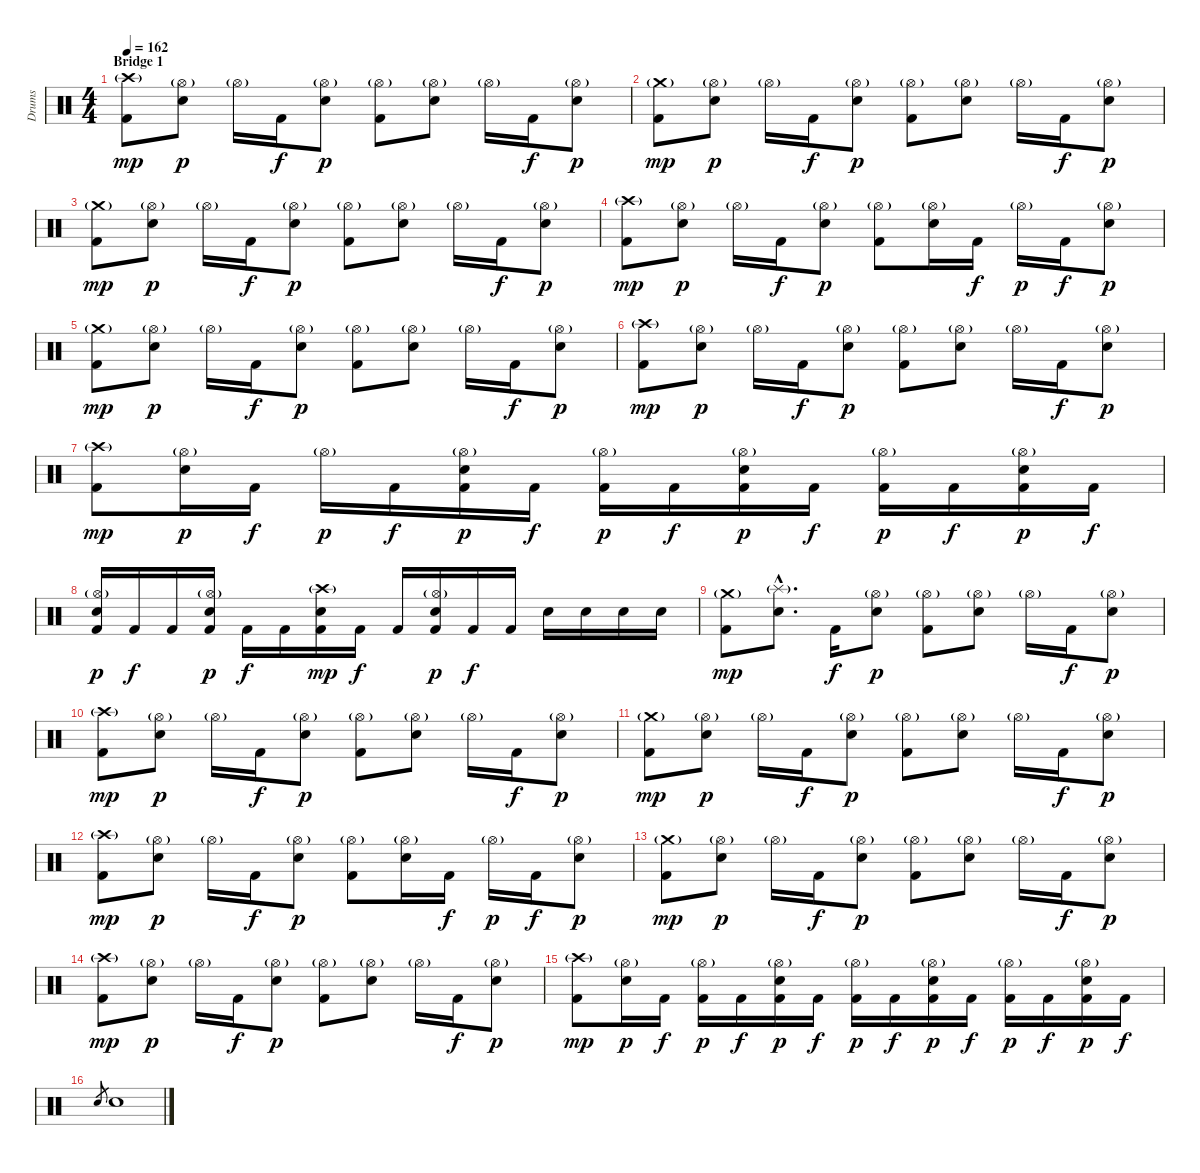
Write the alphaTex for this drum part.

\track ("Drums" "Drums") {instrument percussion}
\staff {score}
\articulation defaults
\ts (4 4)
\section ("" "Bridge 1")
\tempo 162
\clef neutral
\ks c
("Crash high (hit)"{g} "Kick (hit) 2").8{dy mp} ("Hi-Hat (open)"{g} "Snare (hit) 2").8{dy p} "Hi-Hat (open)"{g}.16 "Kick (hit) 2".16{dy f} ("Hi-Hat (open)"{g} "Snare (hit) 2").8{dy p} ("Hi-Hat (open)"{g} "Kick (hit) 2").8 ("Hi-Hat (open)"{g} "Snare (hit) 2").8 "Hi-Hat (open)"{g}.16 "Kick (hit) 2".16{dy f} ("Hi-Hat (open)"{g} "Snare (hit) 2").8{dy p} |
("Crash medium (hit)"{g} "Kick (hit) 2").8{dy mp} ("Hi-Hat (open)"{g} "Snare (hit) 2").8{dy p} "Hi-Hat (open)"{g}.16 "Kick (hit) 2".16{dy f} ("Hi-Hat (open)"{g} "Snare (hit) 2").8{dy p} ("Hi-Hat (open)"{g} "Kick (hit) 2").8 ("Hi-Hat (open)"{g} "Snare (hit) 2").8 "Hi-Hat (open)"{g}.16 "Kick (hit) 2".16{dy f} ("Hi-Hat (open)"{g} "Snare (hit) 2").8{dy p} |
("Crash medium (hit)"{g} "Kick (hit) 2").8{dy mp} ("Hi-Hat (open)"{g} "Snare (hit) 2").8{dy p} "Hi-Hat (open)"{g}.16 "Kick (hit) 2".16{dy f} ("Hi-Hat (open)"{g} "Snare (hit) 2").8{dy p} ("Hi-Hat (open)"{g} "Kick (hit) 2").8 ("Hi-Hat (open)"{g} "Snare (hit) 2").8 "Hi-Hat (open)"{g}.16 "Kick (hit) 2".16{dy f} ("Hi-Hat (open)"{g} "Snare (hit) 2").8{dy p} |
("Crash high (hit)"{g} "Kick (hit) 2").8{dy mp} ("Hi-Hat (open)"{g} "Snare (hit) 2").8{dy p} "Hi-Hat (open)"{g}.16 "Kick (hit) 2".16{dy f} ("Hi-Hat (open)"{g} "Snare (hit) 2").8{dy p} ("Hi-Hat (open)"{g} "Kick (hit) 2").8 ("Hi-Hat (open)"{g} "Snare (hit) 2").16 "Kick (hit) 2".16{dy f} "Hi-Hat (open)"{g}.16{dy p} "Kick (hit) 2".16{dy f} ("Hi-Hat (open)"{g} "Snare (hit) 2").8{dy p} |
("Crash medium (hit)"{g} "Kick (hit) 2").8{dy mp} ("Hi-Hat (open)"{g} "Snare (hit) 2").8{dy p} "Hi-Hat (open)"{g}.16 "Kick (hit) 2".16{dy f} ("Hi-Hat (open)"{g} "Snare (hit) 2").8{dy p} ("Hi-Hat (open)"{g} "Kick (hit) 2").8 ("Hi-Hat (open)"{g} "Snare (hit) 2").8 "Hi-Hat (open)"{g}.16 "Kick (hit) 2".16{dy f} ("Hi-Hat (open)"{g} "Snare (hit) 2").8{dy p} |
("Crash high (hit)"{g} "Kick (hit) 2").8{dy mp} ("Hi-Hat (open)"{g} "Snare (hit) 2").8{dy p} "Hi-Hat (open)"{g}.16 "Kick (hit) 2".16{dy f} ("Hi-Hat (open)"{g} "Snare (hit) 2").8{dy p} ("Hi-Hat (open)"{g} "Kick (hit) 2").8 ("Hi-Hat (open)"{g} "Snare (hit) 2").8 "Hi-Hat (open)"{g}.16 "Kick (hit) 2".16{dy f} ("Hi-Hat (open)"{g} "Snare (hit) 2").8{dy p} |
("Crash high (hit)"{g} "Kick (hit) 2").8{dy mp} ("Hi-Hat (open)"{g} "Snare (hit) 2").16{dy p} "Kick (hit) 2".16{dy f} "Hi-Hat (open)"{g}.16{dy p} "Kick (hit) 2".16{dy f} ("Hi-Hat (open)"{g} "Snare (hit) 2" "Kick (hit) 2").16{dy p} "Kick (hit) 2".16{dy f} ("Hi-Hat (open)"{g} "Kick (hit) 2").16{dy p} "Kick (hit) 2".16{dy f} ("Hi-Hat (open)"{g} "Snare (hit) 2" "Kick (hit) 2").16{dy p} "Kick (hit) 2".16{dy f} ("Hi-Hat (open)"{g} "Kick (hit) 2").16{dy p} "Kick (hit) 2".16{dy f} ("Hi-Hat (open)"{g} "Snare (hit) 2" "Kick (hit) 2").16{dy p} "Kick (hit) 2".16{dy f} |
("Hi-Hat (open)"{g} "Snare (hit) 2" "Kick (hit) 2").16{dy p} "Kick (hit) 2".16{dy f} "Kick (hit) 2".16 ("Hi-Hat (open)"{g} "Snare (hit) 2" "Kick (hit) 2").16{dy p} "Kick (hit) 2".16{dy f} "Kick (hit) 2".16 ("Crash high (hit)"{g} "Snare (hit) 2" "Kick (hit) 2").16{dy mp} "Kick (hit) 2".16{dy f} "Kick (hit) 2".16 ("Hi-Hat (open)"{g} "Snare (hit) 2" "Kick (hit) 2").16{dy p} "Kick (hit) 2".16{dy f} "Kick (hit) 2".16 "Snare (hit) 2".16 "Snare (hit) 2".16 "Snare (hit) 2".16 "Snare (hit) 2".16 |
("Crash medium (hit)"{g} "Kick (hit) 2").8{dy mp} ("Splash (hit)"{g hac} "Snare (hit) 2"{hac}).8{d} "Kick (hit) 2".16{dy f} ("Hi-Hat (open)"{g} "Snare (hit) 2").8{dy p} ("Hi-Hat (open)"{g} "Kick (hit) 2").8 ("Hi-Hat (open)"{g} "Snare (hit) 2").8 "Hi-Hat (open)"{g}.16 "Kick (hit) 2".16{dy f} ("Hi-Hat (open)"{g} "Snare (hit) 2").8{dy p} |
("Crash high (hit)"{g} "Kick (hit) 2").8{dy mp} ("Hi-Hat (open)"{g} "Snare (hit) 2").8{dy p} "Hi-Hat (open)"{g}.16 "Kick (hit) 2".16{dy f} ("Hi-Hat (open)"{g} "Snare (hit) 2").8{dy p} ("Hi-Hat (open)"{g} "Kick (hit) 2").8 ("Hi-Hat (open)"{g} "Snare (hit) 2").8 "Hi-Hat (open)"{g}.16 "Kick (hit) 2".16{dy f} ("Hi-Hat (open)"{g} "Snare (hit) 2").8{dy p} |
("Crash medium (hit)"{g} "Kick (hit) 2").8{dy mp} ("Hi-Hat (open)"{g} "Snare (hit) 2").8{dy p} "Hi-Hat (open)"{g}.16 "Kick (hit) 2".16{dy f} ("Hi-Hat (open)"{g} "Snare (hit) 2").8{dy p} ("Hi-Hat (open)"{g} "Kick (hit) 2").8 ("Hi-Hat (open)"{g} "Snare (hit) 2").8 "Hi-Hat (open)"{g}.16 "Kick (hit) 2".16{dy f} ("Hi-Hat (open)"{g} "Snare (hit) 2").8{dy p} |
("Crash high (hit)"{g} "Kick (hit) 2").8{dy mp} ("Hi-Hat (open)"{g} "Snare (hit) 2").8{dy p} "Hi-Hat (open)"{g}.16 "Kick (hit) 2".16{dy f} ("Hi-Hat (open)"{g} "Snare (hit) 2").8{dy p} ("Hi-Hat (open)"{g} "Kick (hit) 2").8 ("Hi-Hat (open)"{g} "Snare (hit) 2").16 "Kick (hit) 2".16{dy f} "Hi-Hat (open)"{g}.16{dy p} "Kick (hit) 2".16{dy f} ("Hi-Hat (open)"{g} "Snare (hit) 2").8{dy p} |
("Crash medium (hit)"{g} "Kick (hit) 2").8{dy mp} ("Hi-Hat (open)"{g} "Snare (hit) 2").8{dy p} "Hi-Hat (open)"{g}.16 "Kick (hit) 2".16{dy f} ("Hi-Hat (open)"{g} "Snare (hit) 2").8{dy p} ("Hi-Hat (open)"{g} "Kick (hit) 2").8 ("Hi-Hat (open)"{g} "Snare (hit) 2").8 "Hi-Hat (open)"{g}.16 "Kick (hit) 2".16{dy f} ("Hi-Hat (open)"{g} "Snare (hit) 2").8{dy p} |
("Crash high (hit)"{g} "Kick (hit) 2").8{dy mp} ("Hi-Hat (open)"{g} "Snare (hit) 2").8{dy p} "Hi-Hat (open)"{g}.16 "Kick (hit) 2".16{dy f} ("Hi-Hat (open)"{g} "Snare (hit) 2").8{dy p} ("Hi-Hat (open)"{g} "Kick (hit) 2").8 ("Hi-Hat (open)"{g} "Snare (hit) 2").8 "Hi-Hat (open)"{g}.16 "Kick (hit) 2".16{dy f} ("Hi-Hat (open)"{g} "Snare (hit) 2").8{dy p} |
("Crash high (hit)"{g} "Kick (hit) 2").8{dy mp} ("Hi-Hat (open)"{g} "Snare (hit) 2").16{dy p} "Kick (hit) 2".16{dy f} ("Hi-Hat (open)"{g} "Kick (hit) 2").16{dy p} "Kick (hit) 2".16{dy f} ("Hi-Hat (open)"{g} "Snare (hit) 2" "Kick (hit) 2").16{dy p} "Kick (hit) 2".16{dy f} ("Hi-Hat (open)"{g} "Kick (hit) 2").16{dy p} "Kick (hit) 2".16{dy f} ("Hi-Hat (open)"{g} "Snare (hit) 2" "Kick (hit) 2").16{dy p} "Kick (hit) 2".16{dy f} ("Hi-Hat (open)"{g} "Kick (hit) 2").16{dy p} "Kick (hit) 2".16{dy f} ("Hi-Hat (open)"{g} "Snare (hit) 2" "Kick (hit) 2").16{dy p} "Kick (hit) 2".16{dy f} |
"Snare (hit) 2".8{gr} "Snare (hit) 2".1
